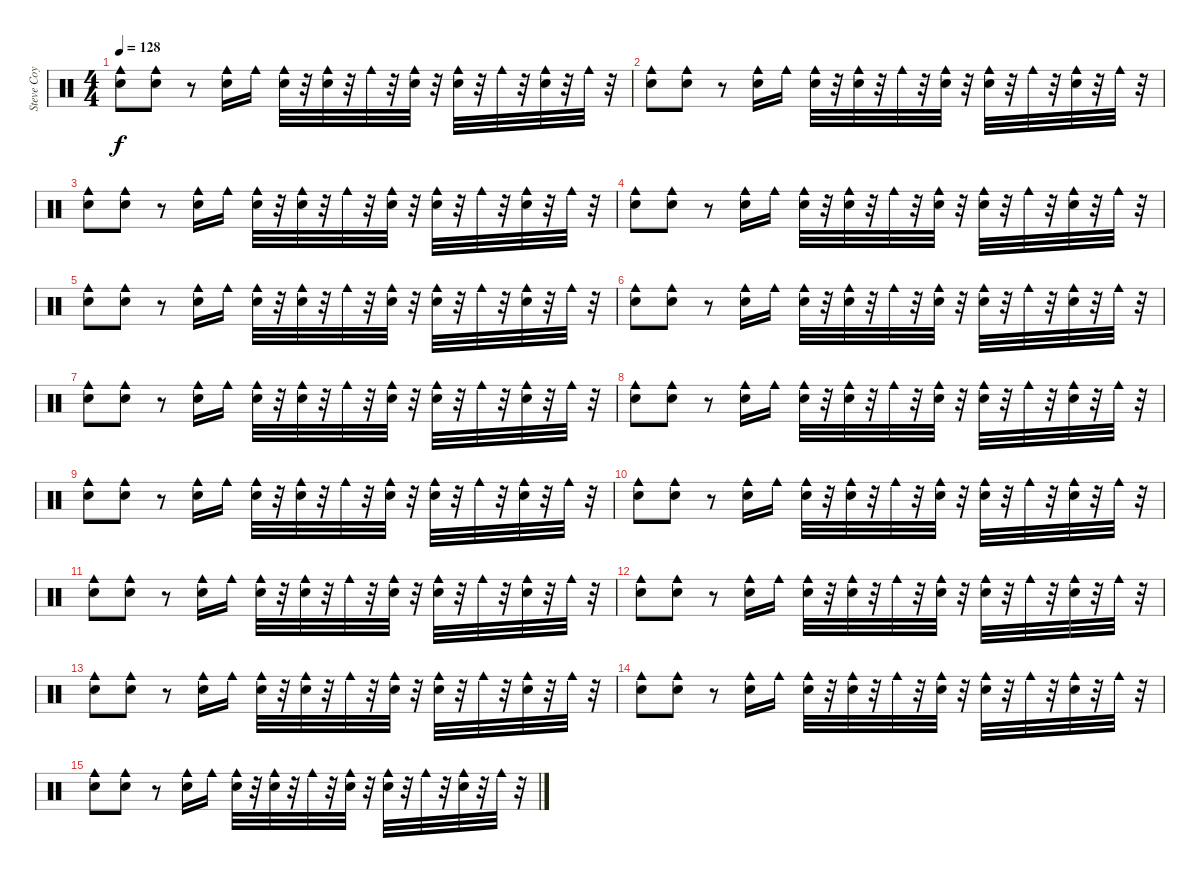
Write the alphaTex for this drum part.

\track ("Steve Coy" "Steve Coy") {instrument percussion}
\staff {score}
\articulation defaults
\ts (4 4)
\tempo 128
\clef neutral
\ks c
("Cowbell medium (hit)" "Hand Clap (hit)").8{dy f} ("Cowbell medium (hit)" "Hand Clap (hit)").8 r.8 ("Cowbell medium (hit)" "Hand Clap (hit)").16 "Cowbell medium (hit)".16 ("Cowbell medium (hit)" "Hand Clap (hit)").32 r.32 ("Cowbell medium (hit)" "Hand Clap (hit)").32 r.32 "Cowbell medium (hit)".32 r.32 ("Cowbell medium (hit)" "Hand Clap (hit)").32 r.32 ("Cowbell medium (hit)" "Hand Clap (hit)").32 r.32 "Cowbell medium (hit)".32 r.32 ("Cowbell medium (hit)" "Hand Clap (hit)").32 r.32 "Cowbell medium (hit)".32 r.32 |
("Cowbell medium (hit)" "Hand Clap (hit)").8 ("Cowbell medium (hit)" "Hand Clap (hit)").8 r.8 ("Cowbell medium (hit)" "Hand Clap (hit)").16 "Cowbell medium (hit)".16 ("Cowbell medium (hit)" "Hand Clap (hit)").32 r.32 ("Cowbell medium (hit)" "Hand Clap (hit)").32 r.32 "Cowbell medium (hit)".32 r.32 ("Cowbell medium (hit)" "Hand Clap (hit)").32 r.32 ("Cowbell medium (hit)" "Hand Clap (hit)").32 r.32 "Cowbell medium (hit)".32 r.32 ("Cowbell medium (hit)" "Hand Clap (hit)").32 r.32 "Cowbell medium (hit)".32 r.32 |
("Cowbell medium (hit)" "Hand Clap (hit)").8 ("Cowbell medium (hit)" "Hand Clap (hit)").8 r.8 ("Cowbell medium (hit)" "Hand Clap (hit)").16 "Cowbell medium (hit)".16 ("Cowbell medium (hit)" "Hand Clap (hit)").32 r.32 ("Cowbell medium (hit)" "Hand Clap (hit)").32 r.32 "Cowbell medium (hit)".32 r.32 ("Cowbell medium (hit)" "Hand Clap (hit)").32 r.32 ("Cowbell medium (hit)" "Hand Clap (hit)").32 r.32 "Cowbell medium (hit)".32 r.32 ("Cowbell medium (hit)" "Hand Clap (hit)").32 r.32 "Cowbell medium (hit)".32 r.32 |
("Cowbell medium (hit)" "Hand Clap (hit)").8 ("Cowbell medium (hit)" "Hand Clap (hit)").8 r.8 ("Cowbell medium (hit)" "Hand Clap (hit)").16 "Cowbell medium (hit)".16 ("Cowbell medium (hit)" "Hand Clap (hit)").32 r.32 ("Cowbell medium (hit)" "Hand Clap (hit)").32 r.32 "Cowbell medium (hit)".32 r.32 ("Cowbell medium (hit)" "Hand Clap (hit)").32 r.32 ("Cowbell medium (hit)" "Hand Clap (hit)").32 r.32 "Cowbell medium (hit)".32 r.32 ("Cowbell medium (hit)" "Hand Clap (hit)").32 r.32 "Cowbell medium (hit)".32 r.32 |
("Cowbell medium (hit)" "Hand Clap (hit)").8 ("Cowbell medium (hit)" "Hand Clap (hit)").8 r.8 ("Cowbell medium (hit)" "Hand Clap (hit)").16 "Cowbell medium (hit)".16 ("Cowbell medium (hit)" "Hand Clap (hit)").32 r.32 ("Cowbell medium (hit)" "Hand Clap (hit)").32 r.32 "Cowbell medium (hit)".32 r.32 ("Cowbell medium (hit)" "Hand Clap (hit)").32 r.32 ("Cowbell medium (hit)" "Hand Clap (hit)").32 r.32 "Cowbell medium (hit)".32 r.32 ("Cowbell medium (hit)" "Hand Clap (hit)").32 r.32 "Cowbell medium (hit)".32 r.32 |
("Cowbell medium (hit)" "Hand Clap (hit)").8 ("Cowbell medium (hit)" "Hand Clap (hit)").8 r.8 ("Cowbell medium (hit)" "Hand Clap (hit)").16 "Cowbell medium (hit)".16 ("Cowbell medium (hit)" "Hand Clap (hit)").32 r.32 ("Cowbell medium (hit)" "Hand Clap (hit)").32 r.32 "Cowbell medium (hit)".32 r.32 ("Cowbell medium (hit)" "Hand Clap (hit)").32 r.32 ("Cowbell medium (hit)" "Hand Clap (hit)").32 r.32 "Cowbell medium (hit)".32 r.32 ("Cowbell medium (hit)" "Hand Clap (hit)").32 r.32 "Cowbell medium (hit)".32 r.32 |
("Cowbell medium (hit)" "Hand Clap (hit)").8 ("Cowbell medium (hit)" "Hand Clap (hit)").8 r.8 ("Cowbell medium (hit)" "Hand Clap (hit)").16 "Cowbell medium (hit)".16 ("Cowbell medium (hit)" "Hand Clap (hit)").32 r.32 ("Cowbell medium (hit)" "Hand Clap (hit)").32 r.32 "Cowbell medium (hit)".32 r.32 ("Cowbell medium (hit)" "Hand Clap (hit)").32 r.32 ("Cowbell medium (hit)" "Hand Clap (hit)").32 r.32 "Cowbell medium (hit)".32 r.32 ("Cowbell medium (hit)" "Hand Clap (hit)").32 r.32 "Cowbell medium (hit)".32 r.32 |
("Cowbell medium (hit)" "Hand Clap (hit)").8 ("Cowbell medium (hit)" "Hand Clap (hit)").8 r.8 ("Cowbell medium (hit)" "Hand Clap (hit)").16 "Cowbell medium (hit)".16 ("Cowbell medium (hit)" "Hand Clap (hit)").32 r.32 ("Cowbell medium (hit)" "Hand Clap (hit)").32 r.32 "Cowbell medium (hit)".32 r.32 ("Cowbell medium (hit)" "Hand Clap (hit)").32 r.32 ("Cowbell medium (hit)" "Hand Clap (hit)").32 r.32 "Cowbell medium (hit)".32 r.32 ("Cowbell medium (hit)" "Hand Clap (hit)").32 r.32 "Cowbell medium (hit)".32 r.32 |
("Cowbell medium (hit)" "Hand Clap (hit)").8 ("Cowbell medium (hit)" "Hand Clap (hit)").8 r.8 ("Cowbell medium (hit)" "Hand Clap (hit)").16 "Cowbell medium (hit)".16 ("Cowbell medium (hit)" "Hand Clap (hit)").32 r.32 ("Cowbell medium (hit)" "Hand Clap (hit)").32 r.32 "Cowbell medium (hit)".32 r.32 ("Cowbell medium (hit)" "Hand Clap (hit)").32 r.32 ("Cowbell medium (hit)" "Hand Clap (hit)").32 r.32 "Cowbell medium (hit)".32 r.32 ("Cowbell medium (hit)" "Hand Clap (hit)").32 r.32 "Cowbell medium (hit)".32 r.32 |
("Cowbell medium (hit)" "Hand Clap (hit)").8 ("Cowbell medium (hit)" "Hand Clap (hit)").8 r.8 ("Cowbell medium (hit)" "Hand Clap (hit)").16 "Cowbell medium (hit)".16 ("Cowbell medium (hit)" "Hand Clap (hit)").32 r.32 ("Cowbell medium (hit)" "Hand Clap (hit)").32 r.32 "Cowbell medium (hit)".32 r.32 ("Cowbell medium (hit)" "Hand Clap (hit)").32 r.32 ("Cowbell medium (hit)" "Hand Clap (hit)").32 r.32 "Cowbell medium (hit)".32 r.32 ("Cowbell medium (hit)" "Hand Clap (hit)").32 r.32 "Cowbell medium (hit)".32 r.32 |
("Cowbell medium (hit)" "Hand Clap (hit)").8 ("Cowbell medium (hit)" "Hand Clap (hit)").8 r.8 ("Cowbell medium (hit)" "Hand Clap (hit)").16 "Cowbell medium (hit)".16 ("Cowbell medium (hit)" "Hand Clap (hit)").32 r.32 ("Cowbell medium (hit)" "Hand Clap (hit)").32 r.32 "Cowbell medium (hit)".32 r.32 ("Cowbell medium (hit)" "Hand Clap (hit)").32 r.32 ("Cowbell medium (hit)" "Hand Clap (hit)").32 r.32 "Cowbell medium (hit)".32 r.32 ("Cowbell medium (hit)" "Hand Clap (hit)").32 r.32 "Cowbell medium (hit)".32 r.32 |
("Cowbell medium (hit)" "Hand Clap (hit)").8 ("Cowbell medium (hit)" "Hand Clap (hit)").8 r.8 ("Cowbell medium (hit)" "Hand Clap (hit)").16 "Cowbell medium (hit)".16 ("Cowbell medium (hit)" "Hand Clap (hit)").32 r.32 ("Cowbell medium (hit)" "Hand Clap (hit)").32 r.32 "Cowbell medium (hit)".32 r.32 ("Cowbell medium (hit)" "Hand Clap (hit)").32 r.32 ("Cowbell medium (hit)" "Hand Clap (hit)").32 r.32 "Cowbell medium (hit)".32 r.32 ("Cowbell medium (hit)" "Hand Clap (hit)").32 r.32 "Cowbell medium (hit)".32 r.32 |
("Cowbell medium (hit)" "Hand Clap (hit)").8 ("Cowbell medium (hit)" "Hand Clap (hit)").8 r.8 ("Cowbell medium (hit)" "Hand Clap (hit)").16 "Cowbell medium (hit)".16 ("Cowbell medium (hit)" "Hand Clap (hit)").32 r.32 ("Cowbell medium (hit)" "Hand Clap (hit)").32 r.32 "Cowbell medium (hit)".32 r.32 ("Cowbell medium (hit)" "Hand Clap (hit)").32 r.32 ("Cowbell medium (hit)" "Hand Clap (hit)").32 r.32 "Cowbell medium (hit)".32 r.32 ("Cowbell medium (hit)" "Hand Clap (hit)").32 r.32 "Cowbell medium (hit)".32 r.32 |
("Cowbell medium (hit)" "Hand Clap (hit)").8 ("Cowbell medium (hit)" "Hand Clap (hit)").8 r.8 ("Cowbell medium (hit)" "Hand Clap (hit)").16 "Cowbell medium (hit)".16 ("Cowbell medium (hit)" "Hand Clap (hit)").32 r.32 ("Cowbell medium (hit)" "Hand Clap (hit)").32 r.32 "Cowbell medium (hit)".32 r.32 ("Cowbell medium (hit)" "Hand Clap (hit)").32 r.32 ("Cowbell medium (hit)" "Hand Clap (hit)").32 r.32 "Cowbell medium (hit)".32 r.32 ("Cowbell medium (hit)" "Hand Clap (hit)").32 r.32 "Cowbell medium (hit)".32 r.32 |
("Cowbell medium (hit)" "Hand Clap (hit)").8 ("Cowbell medium (hit)" "Hand Clap (hit)").8 r.8 ("Cowbell medium (hit)" "Hand Clap (hit)").16 "Cowbell medium (hit)".16 ("Cowbell medium (hit)" "Hand Clap (hit)").32 r.32 ("Cowbell medium (hit)" "Hand Clap (hit)").32 r.32 "Cowbell medium (hit)".32 r.32 ("Cowbell medium (hit)" "Hand Clap (hit)").32 r.32 ("Cowbell medium (hit)" "Hand Clap (hit)").32 r.32 "Cowbell medium (hit)".32 r.32 ("Cowbell medium (hit)" "Hand Clap (hit)").32 r.32 "Cowbell medium (hit)".32 r.32
